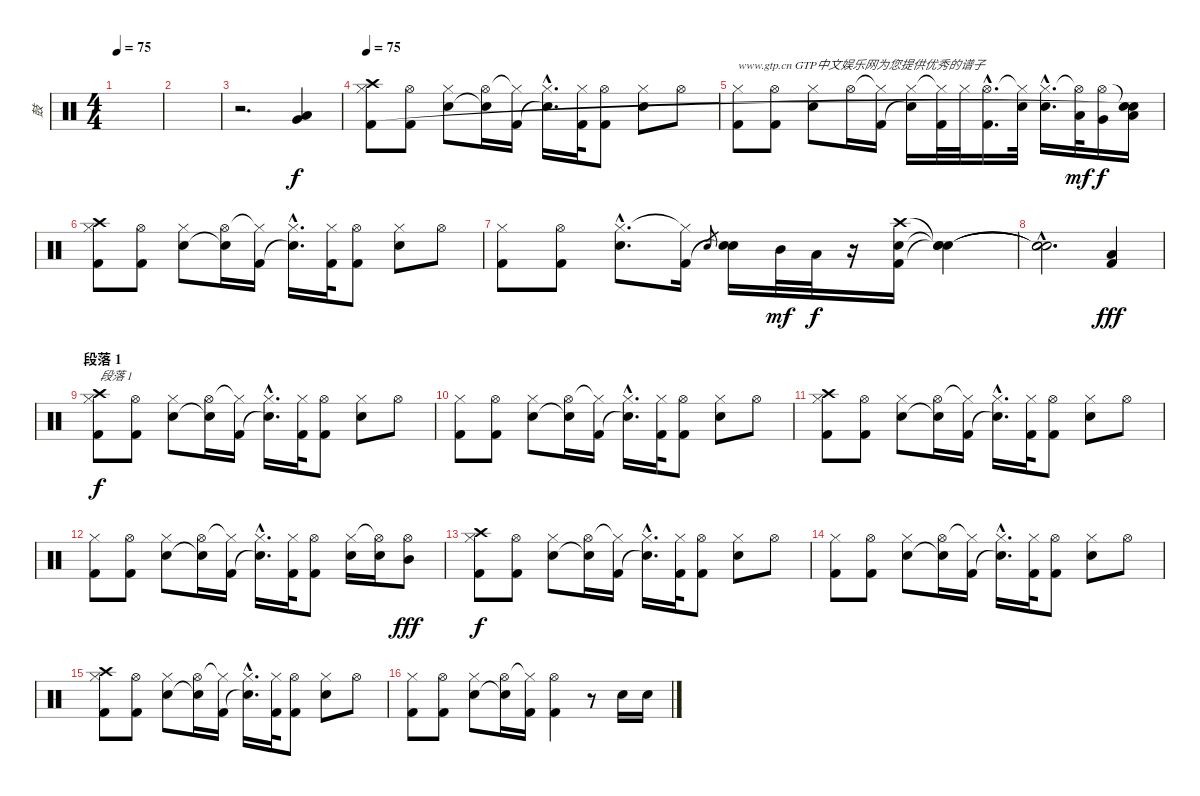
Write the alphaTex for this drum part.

\track ("鼓" "鼓") {instrument percussion}
\staff {score}
\articulation defaults
\ts (4 4)
\tempo 75
\tempo 49
\tempo 53
\tempo 75
\clef neutral
\ks c
|
|
r.2{d} ("Very Low Tom (hit)" "Low Floor Tom (hit)").4 |
\tempo 75
("Hi-Hat (closed)" "Crash high (hit)" "Kick (hit) 2").8{dy f} ("Hi-Hat (open)" "Kick (hit) 2").8 ("Hi-Hat (closed)" "Electric Snare (hit)").8 ("Hi-Hat (open)" "Snare (hit)"{t}).16 ("Hi-Hat (closed)"{t} "Kick (hit) 2").16 ("Hi-Hat (closed)"{hac} "Snare (hit)"{hac t}).16{d} ("Hi-Hat (closed)" "Kick (hit) 2").32 ("Hi-Hat (open)" "Kick (hit) 2").8 ("Hi-Hat (closed)" "Electric Snare (hit)").8 "Hi-Hat (open)".8 |
("Hi-Hat (closed)" "Kick (hit) 2").8{txt "www.gtp.cn GTP中文娱乐网为您提供优秀的谱子"} ("Hi-Hat (open)" "Kick (hit) 2").8 ("Hi-Hat (closed)" "Electric Snare (hit)").8 "Hi-Hat (open)".16 ("Hi-Hat (closed)"{t} "Kick (hit) 2").16 ("Hi-Hat (closed)" "Snare (hit)"{t}).16 ("Hi-Hat (closed)"{t} "Kick (hit) 2").32 "Hi-Hat (closed)".32 ("Hi-Hat (open)"{hac} "Kick (hit) 2"{hac}).16{d} ("Hi-Hat (closed)"{t} "Electric Snare (hit)").32 ("Hi-Hat (closed)"{hac} "Electric Snare (hit)"{hac}).16{d} ("Hi-Hat (open)"{t} "Low Tom (hit)").32{dy mf} ("Hi-Hat (open)" "Very Low Tom (hit)").16{dy f} ("Snare (hit)"{t} "Low Floor Tom (hit)" "Snare (hit)"{t}).16 |
("Hi-Hat (closed)" "Crash high (hit)" "Kick (hit) 2").8 ("Hi-Hat (open)" "Kick (hit) 2").8 ("Hi-Hat (closed)" "Electric Snare (hit)").8 ("Hi-Hat (open)" "Snare (hit)"{t}).16 ("Hi-Hat (closed)"{t} "Kick (hit) 2").16 ("Hi-Hat (closed)"{hac} "Snare (hit)"{hac t}).16{d} ("Hi-Hat (closed)" "Kick (hit) 2").32 ("Hi-Hat (open)" "Kick (hit) 2").8 ("Hi-Hat (closed)" "Electric Snare (hit)").8 "Hi-Hat (open)".8 |
("Hi-Hat (closed)" "Kick (hit) 2").8 ("Hi-Hat (open)" "Kick (hit) 2").8 ("Hi-Hat (closed)"{hac} "Electric Snare (hit)"{hac}).8{d} ("Hi-Hat (closed)"{t} "Kick (hit) 2").16 "Electric Snare (hit)".8{gr} ("Electric Snare (hit)" "Snare (hit)"{t}).16 "Mid Tom (hit)".32{dy mf} "Low Tom (hit)".32{dy f} r.16 ("Crash high (hit)" "Electric Snare (hit)" "Kick (hit) 2").16 ("Snare (hit)"{t} "Snare (hit)"{t} "Snare (hit)"{t}).4 |
("Snare (hit)"{hac t} "Snare (hit)"{hac t} "Snare (hit)"{hac t}).2{d} ("Low Floor Tom (hit)" "Kick (hit) 2").4{dy fff} |
\section ("" "段落 1")
("Hi-Hat (closed)" "Crash high (hit)" "Kick (hit) 2").8{txt "段落 1" dy f} ("Hi-Hat (open)" "Kick (hit) 2").8 ("Hi-Hat (closed)" "Electric Snare (hit)").8 ("Hi-Hat (open)" "Snare (hit)"{t}).16 ("Hi-Hat (closed)"{t} "Kick (hit) 2").16 ("Hi-Hat (closed)"{hac} "Snare (hit)"{hac t}).16{d} ("Hi-Hat (closed)" "Kick (hit) 2").32 ("Hi-Hat (open)" "Kick (hit) 2").8 ("Hi-Hat (closed)" "Electric Snare (hit)").8 "Hi-Hat (open)".8 |
("Hi-Hat (closed)" "Kick (hit) 2").8 ("Hi-Hat (open)" "Kick (hit) 2").8 ("Hi-Hat (closed)" "Electric Snare (hit)").8 ("Hi-Hat (open)" "Snare (hit)"{t}).16 ("Hi-Hat (closed)"{t} "Kick (hit) 2").16 ("Hi-Hat (closed)"{hac} "Snare (hit)"{hac t}).16{d} ("Hi-Hat (closed)" "Kick (hit) 2").32 ("Hi-Hat (open)" "Kick (hit) 2").8 ("Hi-Hat (closed)" "Electric Snare (hit)").8 "Hi-Hat (open)".8 |
("Hi-Hat (closed)" "Crash high (hit)" "Kick (hit) 2").8 ("Hi-Hat (open)" "Kick (hit) 2").8 ("Hi-Hat (closed)" "Electric Snare (hit)").8 ("Hi-Hat (open)" "Snare (hit)"{t}).16 ("Hi-Hat (closed)"{t} "Kick (hit) 2").16 ("Hi-Hat (closed)"{hac} "Snare (hit)"{hac t}).16{d} ("Hi-Hat (closed)" "Kick (hit) 2").32 ("Hi-Hat (open)" "Kick (hit) 2").8 ("Hi-Hat (closed)" "Electric Snare (hit)").8 "Hi-Hat (open)".8 |
("Hi-Hat (closed)" "Kick (hit) 2").8 ("Hi-Hat (open)" "Kick (hit) 2").8 ("Hi-Hat (closed)" "Electric Snare (hit)").8 ("Hi-Hat (open)" "Snare (hit)"{t}).16 ("Hi-Hat (closed)"{t} "Kick (hit) 2").16 ("Hi-Hat (closed)"{hac} "Snare (hit)"{hac t}).16{d} ("Hi-Hat (closed)" "Kick (hit) 2").32 ("Hi-Hat (open)" "Kick (hit) 2").8 ("Hi-Hat (closed)" "Electric Snare (hit)").16 ("Hi-Hat (open)"{t} "Electric Snare (hit)").16 ("Hi-Hat (open)" "Mid Tom (hit)").8{dy fff} |
("Hi-Hat (closed)" "Crash high (hit)" "Kick (hit) 2").8{dy f} ("Hi-Hat (open)" "Kick (hit) 2").8 ("Hi-Hat (closed)" "Electric Snare (hit)").8 ("Hi-Hat (open)" "Snare (hit)"{t}).16 ("Hi-Hat (closed)"{t} "Kick (hit) 2").16 ("Hi-Hat (closed)"{hac} "Snare (hit)"{hac t}).16{d} ("Hi-Hat (closed)" "Kick (hit) 2").32 ("Hi-Hat (open)" "Kick (hit) 2").8 ("Hi-Hat (closed)" "Electric Snare (hit)").8 "Hi-Hat (open)".8 |
("Hi-Hat (closed)" "Kick (hit) 2").8 ("Hi-Hat (open)" "Kick (hit) 2").8 ("Hi-Hat (closed)" "Electric Snare (hit)").8 ("Hi-Hat (open)" "Snare (hit)"{t}).16 ("Hi-Hat (closed)"{t} "Kick (hit) 2").16 ("Hi-Hat (closed)"{hac} "Snare (hit)"{hac t}).16{d} ("Hi-Hat (closed)" "Kick (hit) 2").32 ("Hi-Hat (open)" "Kick (hit) 2").8 ("Hi-Hat (closed)" "Electric Snare (hit)").8 "Hi-Hat (open)".8 |
("Hi-Hat (closed)" "Crash high (hit)" "Kick (hit) 2").8 ("Hi-Hat (open)" "Kick (hit) 2").8 ("Hi-Hat (closed)" "Electric Snare (hit)").8 ("Hi-Hat (open)" "Snare (hit)"{t}).16 ("Hi-Hat (closed)"{t} "Kick (hit) 2").16 ("Hi-Hat (closed)"{hac} "Snare (hit)"{hac t}).16{d} ("Hi-Hat (closed)" "Kick (hit) 2").32 ("Hi-Hat (open)" "Kick (hit) 2").8 ("Hi-Hat (closed)" "Electric Snare (hit)").8 "Hi-Hat (open)".8 |
("Hi-Hat (closed)" "Kick (hit) 2").8 ("Hi-Hat (open)" "Kick (hit) 2").8 ("Hi-Hat (closed)" "Electric Snare (hit)").8 ("Hi-Hat (open)" "Snare (hit)"{t}).16 ("Hi-Hat (closed)"{t} "Kick (hit) 2").16 ("Hi-Hat (open)" "Kick (hit) 2").4 r.8 "Electric Snare (hit)".16 "Electric Snare (hit)".16
